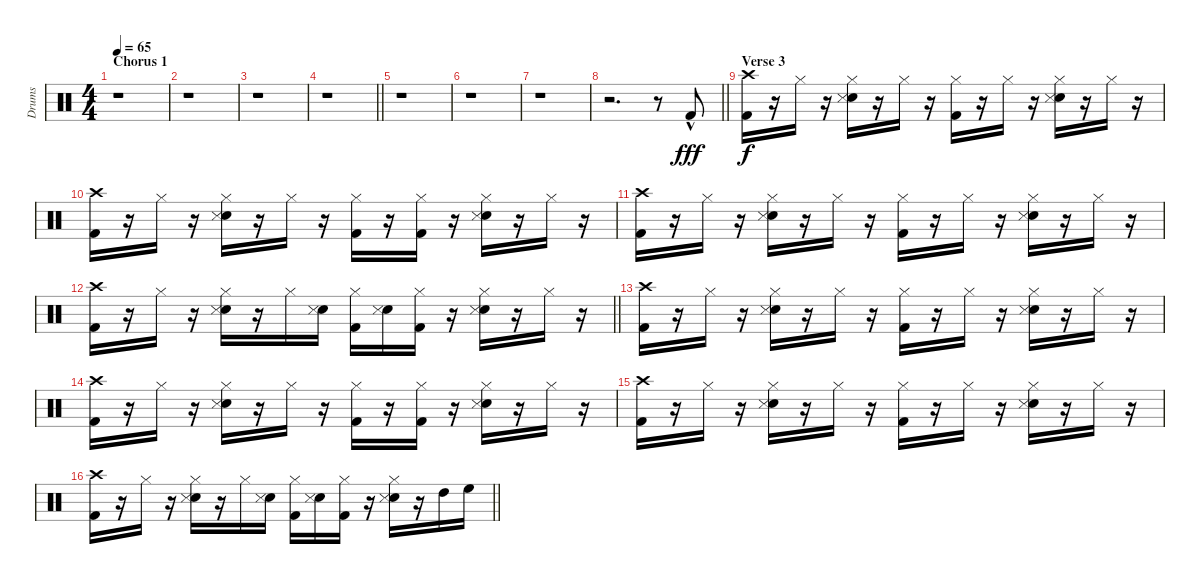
\track ("Drums" "Drums") {instrument percussion}
\staff {score}
\articulation defaults
\ts (4 4)
\section ("" "Chorus 1")
\tempo 65
\clef neutral
\ks c
r.1{dy fff} |
r.1 |
r.1 |
\barLineRight lightlight
r.1 |
r.1 |
r.1 |
r.1 |
\barLineRight lightlight
r.2{d} r.8 "Kick (hit) 2"{hac}.8 |
\section ("" "Verse 3")
("Crash high (hit)" "Kick (hit) 2").16{dy f} r.16 "Hi-Hat (closed)".16 r.16 ("Hi-Hat (closed)" "Snare (hit) 2" "Snare (side stick) 3").16 r.16 "Hi-Hat (closed)".16 r.16 ("Hi-Hat (closed)" "Kick (hit) 2").16 r.16 "Hi-Hat (closed)".16 r.16 ("Hi-Hat (closed)" "Snare (hit) 2" "Snare (side stick) 3").16 r.16 "Hi-Hat (closed)".16 r.16 |
("Crash high (hit)" "Kick (hit) 2").16 r.16 "Hi-Hat (closed)".16 r.16 ("Hi-Hat (closed)" "Snare (hit) 2" "Snare (side stick) 3").16 r.16 "Hi-Hat (closed)".16 r.16 ("Hi-Hat (closed)" "Kick (hit) 2").16 r.16 ("Hi-Hat (closed)" "Kick (hit) 2").16 r.16 ("Hi-Hat (closed)" "Snare (hit) 2" "Snare (side stick) 3").16 r.16 "Hi-Hat (closed)".16 r.16 |
("Crash high (hit)" "Kick (hit) 2").16 r.16 "Hi-Hat (closed)".16 r.16 ("Hi-Hat (closed)" "Snare (hit) 2" "Snare (side stick) 3").16 r.16 "Hi-Hat (closed)".16 r.16 ("Hi-Hat (closed)" "Kick (hit) 2").16 r.16 "Hi-Hat (closed)".16 r.16 ("Hi-Hat (closed)" "Snare (hit) 2" "Snare (side stick) 3").16 r.16 "Hi-Hat (closed)".16 r.16 |
\barLineRight lightlight
("Crash high (hit)" "Kick (hit) 2").16 r.16 "Hi-Hat (closed)".16 r.16 ("Hi-Hat (closed)" "Snare (hit) 2" "Snare (side stick) 3").16 r.16 "Hi-Hat (closed)".16 ("Snare (hit) 2" "Snare (side stick) 3").16 ("Hi-Hat (closed)" "Kick (hit) 2").16 ("Snare (hit) 2" "Snare (side stick) 3").16 ("Hi-Hat (closed)" "Kick (hit) 2").16 r.16 ("Hi-Hat (closed)" "Snare (hit) 2" "Snare (side stick) 3").16 r.16 "Hi-Hat (closed)".16 r.16 |
("Crash high (hit)" "Kick (hit) 2").16 r.16 "Hi-Hat (closed)".16 r.16 ("Hi-Hat (closed)" "Snare (hit) 2" "Snare (side stick) 3").16 r.16 "Hi-Hat (closed)".16 r.16 ("Hi-Hat (closed)" "Kick (hit) 2").16 r.16 "Hi-Hat (closed)".16 r.16 ("Hi-Hat (closed)" "Snare (hit) 2" "Snare (side stick) 3").16 r.16 "Hi-Hat (closed)".16 r.16 |
("Crash high (hit)" "Kick (hit) 2").16 r.16 "Hi-Hat (closed)".16 r.16 ("Hi-Hat (closed)" "Snare (hit) 2" "Snare (side stick) 3").16 r.16 "Hi-Hat (closed)".16 r.16 ("Hi-Hat (closed)" "Kick (hit) 2").16 r.16 ("Hi-Hat (closed)" "Kick (hit) 2").16 r.16 ("Hi-Hat (closed)" "Snare (hit) 2" "Snare (side stick) 3").16 r.16 "Hi-Hat (closed)".16 r.16 |
("Crash high (hit)" "Kick (hit) 2").16 r.16 "Hi-Hat (closed)".16 r.16 ("Hi-Hat (closed)" "Snare (hit) 2" "Snare (side stick) 3").16 r.16 "Hi-Hat (closed)".16 r.16 ("Hi-Hat (closed)" "Kick (hit) 2").16 r.16 "Hi-Hat (closed)".16 r.16 ("Hi-Hat (closed)" "Snare (hit) 2" "Snare (side stick) 3").16 r.16 "Hi-Hat (closed)".16 r.16 |
\barLineRight lightlight
("Crash high (hit)" "Kick (hit) 2").16 r.16 "Hi-Hat (closed)".16 r.16 ("Hi-Hat (closed)" "Snare (hit) 2" "Snare (side stick) 3").16 r.16 "Hi-Hat (closed)".16 ("Snare (hit) 2" "Snare (side stick) 3").16 ("Hi-Hat (closed)" "Kick (hit) 2").16 ("Snare (hit) 2" "Snare (side stick) 3").16 ("Hi-Hat (closed)" "Kick (hit) 2").16 r.16 ("Hi-Hat (closed)" "Snare (hit) 2" "Snare (side stick) 3").16 r.16 "High Tom (hit)".16 "High Floor Tom (hit)".16
